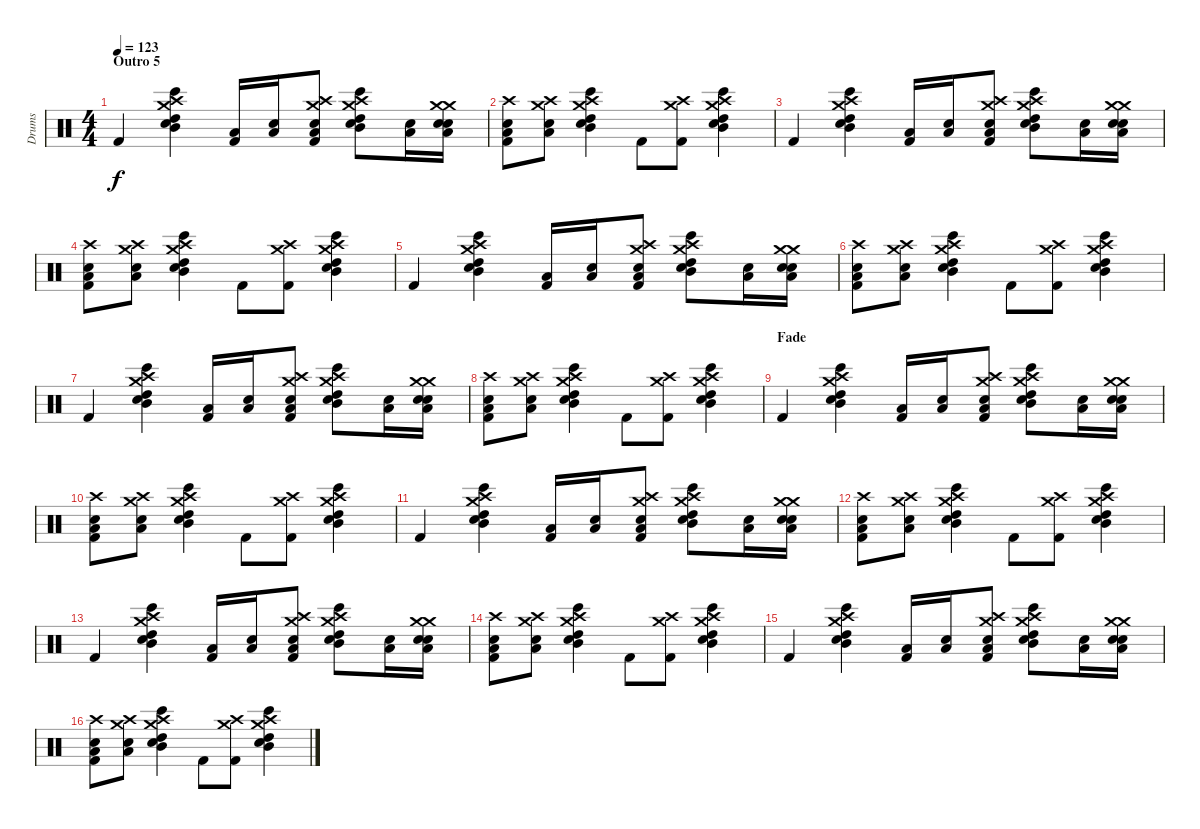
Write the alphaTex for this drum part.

\track ("Drums" "Drums") {instrument percussion}
\staff {score}
\articulation defaults
\ts (4 4)
\section ("" "Outro 5")
\tempo 123
\clef neutral
\ks c "Kick (hit) 2".4{dy f}
("Crash medium (hit)" "Bongo High (hit)" "High Tom (hit)" "Mid Tom (hit)" "Snare (hit) 2" "Crash high (hit)").4 ("Low Floor Tom (hit)" "Kick (hit) 2").16 ("Snare (hit) 2" "Low Floor Tom (hit)").16 ("Crash medium (hit)" "Snare (hit) 2" "Low Floor Tom (hit)" "Kick (hit) 2" "Crash high (hit)").8 ("Crash medium (hit)" "Bongo High (hit)" "High Tom (hit)" "Mid Tom (hit)" "Snare (hit) 2" "Crash high (hit)").8 ("Low Floor Tom (hit)" "Snare (hit) 2").16 ("Crash medium (hit)" "Snare (hit) 2" "Low Floor Tom (hit)" "Snare (hit) 2" "Crash medium (hit)").16 |
("Crash high (hit)" "Snare (hit) 2" "Low Floor Tom (hit)" "Kick (hit) 2").8 ("Crash medium (hit)" "Snare (hit) 2" "Low Floor Tom (hit)" "Crash high (hit)").8 ("Crash medium (hit)" "Bongo High (hit)" "High Tom (hit)" "Mid Tom (hit)" "Snare (hit) 2" "Crash high (hit)").4 "Kick (hit) 2".8 ("Crash medium (hit)" "Kick (hit) 2" "Crash high (hit)").8 ("Crash medium (hit)" "Bongo High (hit)" "High Tom (hit)" "Mid Tom (hit)" "Snare (hit) 2" "Crash high (hit)").4 |
"Kick (hit) 2".4 ("Crash medium (hit)" "Bongo High (hit)" "High Tom (hit)" "Mid Tom (hit)" "Snare (hit) 2" "Crash high (hit)").4 ("Low Floor Tom (hit)" "Kick (hit) 2").16 ("Snare (hit) 2" "Low Floor Tom (hit)").16 ("Crash medium (hit)" "Snare (hit) 2" "Low Floor Tom (hit)" "Kick (hit) 2" "Crash high (hit)").8 ("Crash medium (hit)" "Bongo High (hit)" "High Tom (hit)" "Mid Tom (hit)" "Snare (hit) 2" "Crash high (hit)").8 ("Low Floor Tom (hit)" "Snare (hit) 2").16 ("Crash medium (hit)" "Snare (hit) 2" "Low Floor Tom (hit)" "Snare (hit) 2" "Crash medium (hit)").16 |
("Crash high (hit)" "Snare (hit) 2" "Low Floor Tom (hit)" "Kick (hit) 2").8 ("Crash medium (hit)" "Snare (hit) 2" "Low Floor Tom (hit)" "Crash high (hit)").8 ("Crash medium (hit)" "Bongo High (hit)" "High Tom (hit)" "Mid Tom (hit)" "Snare (hit) 2" "Crash high (hit)").4 "Kick (hit) 2".8 ("Crash medium (hit)" "Kick (hit) 2" "Crash high (hit)").8 ("Crash medium (hit)" "Bongo High (hit)" "High Tom (hit)" "Mid Tom (hit)" "Snare (hit) 2" "Crash high (hit)").4 |
"Kick (hit) 2".4 ("Crash medium (hit)" "Bongo High (hit)" "High Tom (hit)" "Mid Tom (hit)" "Snare (hit) 2" "Crash high (hit)").4 ("Low Floor Tom (hit)" "Kick (hit) 2").16 ("Snare (hit) 2" "Low Floor Tom (hit)").16 ("Crash medium (hit)" "Snare (hit) 2" "Low Floor Tom (hit)" "Kick (hit) 2" "Crash high (hit)").8 ("Crash medium (hit)" "Bongo High (hit)" "High Tom (hit)" "Mid Tom (hit)" "Snare (hit) 2" "Crash high (hit)").8 ("Low Floor Tom (hit)" "Snare (hit) 2").16 ("Crash medium (hit)" "Snare (hit) 2" "Low Floor Tom (hit)" "Snare (hit) 2" "Crash medium (hit)").16 |
("Crash high (hit)" "Snare (hit) 2" "Low Floor Tom (hit)" "Kick (hit) 2").8 ("Crash medium (hit)" "Snare (hit) 2" "Low Floor Tom (hit)" "Crash high (hit)").8 ("Crash medium (hit)" "Bongo High (hit)" "High Tom (hit)" "Mid Tom (hit)" "Snare (hit) 2" "Crash high (hit)").4 "Kick (hit) 2".8 ("Crash medium (hit)" "Kick (hit) 2" "Crash high (hit)").8 ("Crash medium (hit)" "Bongo High (hit)" "High Tom (hit)" "Mid Tom (hit)" "Snare (hit) 2" "Crash high (hit)").4 |
"Kick (hit) 2".4 ("Crash medium (hit)" "Bongo High (hit)" "High Tom (hit)" "Mid Tom (hit)" "Snare (hit) 2" "Crash high (hit)").4 ("Low Floor Tom (hit)" "Kick (hit) 2").16 ("Snare (hit) 2" "Low Floor Tom (hit)").16 ("Crash medium (hit)" "Snare (hit) 2" "Low Floor Tom (hit)" "Kick (hit) 2" "Crash high (hit)").8 ("Crash medium (hit)" "Bongo High (hit)" "High Tom (hit)" "Mid Tom (hit)" "Snare (hit) 2" "Crash high (hit)").8 ("Low Floor Tom (hit)" "Snare (hit) 2").16 ("Crash medium (hit)" "Snare (hit) 2" "Low Floor Tom (hit)" "Snare (hit) 2" "Crash medium (hit)").16 |
("Crash high (hit)" "Snare (hit) 2" "Low Floor Tom (hit)" "Kick (hit) 2").8 ("Crash medium (hit)" "Snare (hit) 2" "Low Floor Tom (hit)" "Crash high (hit)").8 ("Crash medium (hit)" "Bongo High (hit)" "High Tom (hit)" "Mid Tom (hit)" "Snare (hit) 2" "Crash high (hit)").4 "Kick (hit) 2".8 ("Crash medium (hit)" "Kick (hit) 2" "Crash high (hit)").8 ("Crash medium (hit)" "Bongo High (hit)" "High Tom (hit)" "Mid Tom (hit)" "Snare (hit) 2" "Crash high (hit)").4 |
\section ("" "Fade")
"Kick (hit) 2".4 ("Crash medium (hit)" "Bongo High (hit)" "High Tom (hit)" "Mid Tom (hit)" "Snare (hit) 2" "Crash high (hit)").4 ("Low Floor Tom (hit)" "Kick (hit) 2").16 ("Snare (hit) 2" "Low Floor Tom (hit)").16 ("Crash medium (hit)" "Snare (hit) 2" "Low Floor Tom (hit)" "Kick (hit) 2" "Crash high (hit)").8 ("Crash medium (hit)" "Bongo High (hit)" "High Tom (hit)" "Mid Tom (hit)" "Snare (hit) 2" "Crash high (hit)").8 ("Low Floor Tom (hit)" "Snare (hit) 2").16 ("Crash medium (hit)" "Snare (hit) 2" "Low Floor Tom (hit)" "Snare (hit) 2" "Crash medium (hit)").16 |
("Crash high (hit)" "Snare (hit) 2" "Low Floor Tom (hit)" "Kick (hit) 2").8 ("Crash medium (hit)" "Snare (hit) 2" "Low Floor Tom (hit)" "Crash high (hit)").8 ("Crash medium (hit)" "Bongo High (hit)" "High Tom (hit)" "Mid Tom (hit)" "Snare (hit) 2" "Crash high (hit)").4 "Kick (hit) 2".8 ("Crash medium (hit)" "Kick (hit) 2" "Crash high (hit)").8 ("Crash medium (hit)" "Bongo High (hit)" "High Tom (hit)" "Mid Tom (hit)" "Snare (hit) 2" "Crash high (hit)").4 |
"Kick (hit) 2".4 ("Crash medium (hit)" "Bongo High (hit)" "High Tom (hit)" "Mid Tom (hit)" "Snare (hit) 2" "Crash high (hit)").4 ("Low Floor Tom (hit)" "Kick (hit) 2").16 ("Snare (hit) 2" "Low Floor Tom (hit)").16 ("Crash medium (hit)" "Snare (hit) 2" "Low Floor Tom (hit)" "Kick (hit) 2" "Crash high (hit)").8 ("Crash medium (hit)" "Bongo High (hit)" "High Tom (hit)" "Mid Tom (hit)" "Snare (hit) 2" "Crash high (hit)").8 ("Low Floor Tom (hit)" "Snare (hit) 2").16 ("Crash medium (hit)" "Snare (hit) 2" "Low Floor Tom (hit)" "Snare (hit) 2" "Crash medium (hit)").16 |
("Crash high (hit)" "Snare (hit) 2" "Low Floor Tom (hit)" "Kick (hit) 2").8 ("Crash medium (hit)" "Snare (hit) 2" "Low Floor Tom (hit)" "Crash high (hit)").8 ("Crash medium (hit)" "Bongo High (hit)" "High Tom (hit)" "Mid Tom (hit)" "Snare (hit) 2" "Crash high (hit)").4 "Kick (hit) 2".8 ("Crash medium (hit)" "Kick (hit) 2" "Crash high (hit)").8 ("Crash medium (hit)" "Bongo High (hit)" "High Tom (hit)" "Mid Tom (hit)" "Snare (hit) 2" "Crash high (hit)").4 |
"Kick (hit) 2".4 ("Crash medium (hit)" "Bongo High (hit)" "High Tom (hit)" "Mid Tom (hit)" "Snare (hit) 2" "Crash high (hit)").4 ("Low Floor Tom (hit)" "Kick (hit) 2").16 ("Snare (hit) 2" "Low Floor Tom (hit)").16 ("Crash medium (hit)" "Snare (hit) 2" "Low Floor Tom (hit)" "Kick (hit) 2" "Crash high (hit)").8 ("Crash medium (hit)" "Bongo High (hit)" "High Tom (hit)" "Mid Tom (hit)" "Snare (hit) 2" "Crash high (hit)").8 ("Low Floor Tom (hit)" "Snare (hit) 2").16 ("Crash medium (hit)" "Snare (hit) 2" "Low Floor Tom (hit)" "Snare (hit) 2" "Crash medium (hit)").16 |
("Crash high (hit)" "Snare (hit) 2" "Low Floor Tom (hit)" "Kick (hit) 2").8 ("Crash medium (hit)" "Snare (hit) 2" "Low Floor Tom (hit)" "Crash high (hit)").8 ("Crash medium (hit)" "Bongo High (hit)" "High Tom (hit)" "Mid Tom (hit)" "Snare (hit) 2" "Crash high (hit)").4 "Kick (hit) 2".8 ("Crash medium (hit)" "Kick (hit) 2" "Crash high (hit)").8 ("Crash medium (hit)" "Bongo High (hit)" "High Tom (hit)" "Mid Tom (hit)" "Snare (hit) 2" "Crash high (hit)").4 |
"Kick (hit) 2".4 ("Crash medium (hit)" "Bongo High (hit)" "High Tom (hit)" "Mid Tom (hit)" "Snare (hit) 2" "Crash high (hit)").4 ("Low Floor Tom (hit)" "Kick (hit) 2").16 ("Snare (hit) 2" "Low Floor Tom (hit)").16 ("Crash medium (hit)" "Snare (hit) 2" "Low Floor Tom (hit)" "Kick (hit) 2" "Crash high (hit)").8 ("Crash medium (hit)" "Bongo High (hit)" "High Tom (hit)" "Mid Tom (hit)" "Snare (hit) 2" "Crash high (hit)").8 ("Low Floor Tom (hit)" "Snare (hit) 2").16 ("Crash medium (hit)" "Snare (hit) 2" "Low Floor Tom (hit)" "Snare (hit) 2" "Crash medium (hit)").16 |
("Crash high (hit)" "Snare (hit) 2" "Low Floor Tom (hit)" "Kick (hit) 2").8 ("Crash medium (hit)" "Snare (hit) 2" "Low Floor Tom (hit)" "Crash high (hit)").8 ("Crash medium (hit)" "Bongo High (hit)" "High Tom (hit)" "Mid Tom (hit)" "Snare (hit) 2" "Crash high (hit)").4 "Kick (hit) 2".8 ("Crash medium (hit)" "Kick (hit) 2" "Crash high (hit)").8 ("Crash medium (hit)" "Bongo High (hit)" "High Tom (hit)" "Mid Tom (hit)" "Snare (hit) 2" "Crash high (hit)").4
